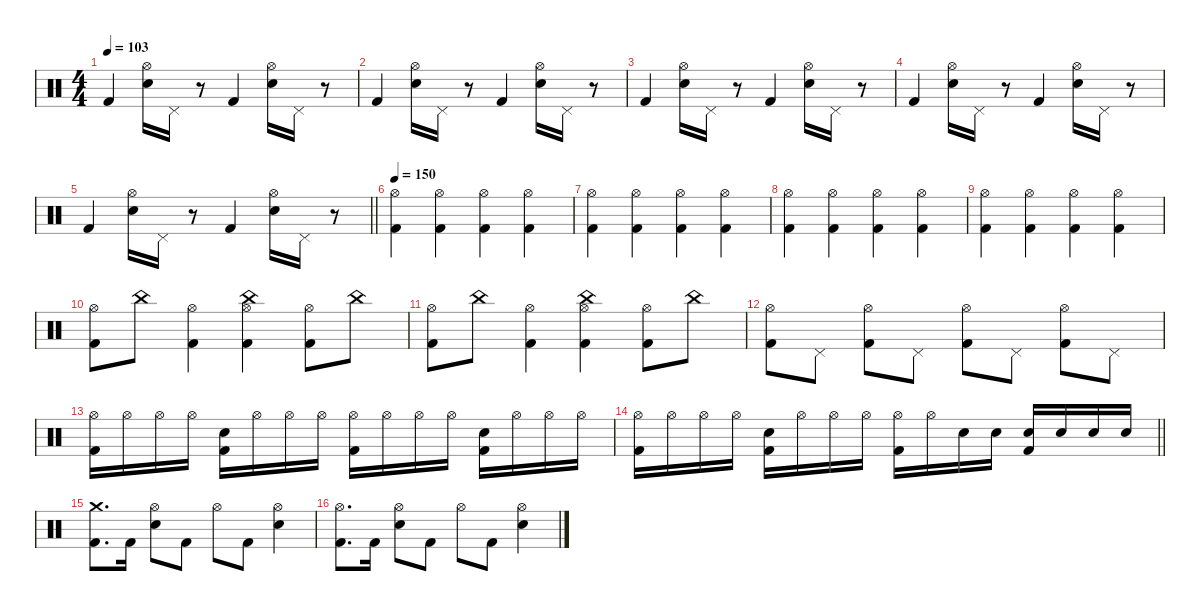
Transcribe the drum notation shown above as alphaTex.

\defaultSystemsLayout 4
\hideDynamics
\bracketExtendMode nobrackets
\singleTrackTrackNamePolicy hidden
\multiTrackTrackNamePolicy hidden
\firstSystemTrackNameMode fullname
\otherSystemsTrackNameOrientation horizontal
\track ("Percussions" "drm.") {defaultSystemsLayout 4 instrument percussion}
\staff {score}
\articulation defaults
\ts (4 4)
\tempo 103
\clef neutral
\ks c "Kick (hit) 2".4{dy fff beam Up}
("Hi-Hat (open)" "Snare (hit) 2").16{dy f beam Down} "Pedal Hi-Hat (hit)".16{beam Down} r.8{beam Down} "Kick (hit) 2".4{dy fff beam Up} ("Hi-Hat (open)" "Snare (hit) 2").16{dy f beam Down} "Pedal Hi-Hat (hit)".16{beam Down} r.8{beam Down} |
"Kick (hit) 2".4{dy fff beam Up} ("Hi-Hat (open)" "Snare (hit) 2").16{dy f beam Down} "Pedal Hi-Hat (hit)".16{beam Down} r.8{beam Down} "Kick (hit) 2".4{dy fff beam Up} ("Hi-Hat (open)" "Snare (hit) 2").16{dy f beam Down} "Pedal Hi-Hat (hit)".16{beam Down} r.8{beam Down} |
"Kick (hit) 2".4{dy fff beam Up} ("Hi-Hat (open)" "Snare (hit) 2").16{dy f beam Down} "Pedal Hi-Hat (hit)".16{beam Down} r.8{beam Down} "Kick (hit) 2".4{dy fff beam Up} ("Hi-Hat (open)" "Snare (hit) 2").16{dy f beam Down} "Pedal Hi-Hat (hit)".16{beam Down} r.8{beam Down} |
"Kick (hit) 2".4{dy fff beam Up} ("Hi-Hat (open)" "Snare (hit) 2").16{dy f beam Down} "Pedal Hi-Hat (hit)".16{beam Down} r.8{beam Down} "Kick (hit) 2".4{dy fff beam Up} ("Hi-Hat (open)" "Snare (hit) 2").16{dy f beam Down} "Pedal Hi-Hat (hit)".16{beam Down} r.8{beam Down} |
\barLineRight lightlight "Kick (hit) 2".4{dy fff beam Up}
("Hi-Hat (open)" "Snare (hit) 2").16{dy f beam Down} "Pedal Hi-Hat (hit)".16{beam Down} r.8{beam Down} "Kick (hit) 2".4{dy fff beam Up} ("Hi-Hat (open)" "Snare (hit) 2").16{dy f beam Down} "Pedal Hi-Hat (hit)".16{beam Down} r.8{beam Down} |
\tempo 150
("Hi-Hat (open)" "Kick (hit) 2").4{beam Down} ("Hi-Hat (open)" "Kick (hit) 2").4{beam Down} ("Hi-Hat (open)" "Kick (hit) 2").4{beam Down} ("Hi-Hat (open)" "Kick (hit) 2").4{beam Down} |
("Hi-Hat (open)" "Kick (hit) 2").4{beam Down} ("Hi-Hat (open)" "Kick (hit) 2").4{beam Down} ("Hi-Hat (open)" "Kick (hit) 2").4{beam Down} ("Hi-Hat (open)" "Kick (hit) 2").4{beam Down} |
("Hi-Hat (open)" "Kick (hit) 2").4{beam Down} ("Hi-Hat (open)" "Kick (hit) 2").4{beam Down} ("Hi-Hat (open)" "Kick (hit) 2").4{beam Down} ("Hi-Hat (open)" "Kick (hit) 2").4{beam Down} |
("Hi-Hat (open)" "Kick (hit) 2").4{beam Down} ("Hi-Hat (open)" "Kick (hit) 2").4{beam Down} ("Hi-Hat (open)" "Kick (hit) 2").4{beam Down} ("Hi-Hat (open)" "Kick (hit) 2").4{beam Down} |
("Hi-Hat (open)" "Kick (hit) 2").8{beam Down} "China (hit)".8{beam Down} ("Hi-Hat (open)" "Kick (hit) 2").4{beam Down} ("Hi-Hat (open)" "China (hit)" "Kick (hit) 2").4{beam Down} ("Hi-Hat (open)" "Kick (hit) 2").8{beam Down} "China (hit)".8{beam Down} |
("Hi-Hat (open)" "Kick (hit) 2").8{beam Down} "China (hit)".8{beam Down} ("Hi-Hat (open)" "Kick (hit) 2").4{beam Down} ("Hi-Hat (open)" "China (hit)" "Kick (hit) 2").4{beam Down} ("Hi-Hat (open)" "Kick (hit) 2").8{beam Down} "China (hit)".8{beam Down} |
("Hi-Hat (open)" "Kick (hit) 2").8{beam Down} "Pedal Hi-Hat (hit)".8{beam Down} ("Hi-Hat (open)" "Kick (hit) 2").8{beam Down} "Pedal Hi-Hat (hit)".8{beam Down} ("Hi-Hat (open)" "Kick (hit) 2").8{beam Down} "Pedal Hi-Hat (hit)".8{beam Down} ("Hi-Hat (open)" "Kick (hit) 2").8{beam Down} "Pedal Hi-Hat (hit)".8{beam Down} |
("Hi-Hat (open)" "Kick (hit) 2").16{beam Down} "Hi-Hat (open)".16{beam Down} "Hi-Hat (open)".16{beam Down} "Hi-Hat (open)".16{beam Down} ("Snare (hit) 2" "Kick (hit) 2").16{dy fff beam Down} "Hi-Hat (open)".16{dy f beam Down} "Hi-Hat (open)".16{beam Down} "Hi-Hat (open)".16{beam Down} ("Hi-Hat (open)" "Kick (hit) 2").16{beam Down} "Hi-Hat (open)".16{beam Down} "Hi-Hat (open)".16{beam Down} "Hi-Hat (open)".16{beam Down} ("Snare (hit) 2" "Kick (hit) 2").16{dy fff beam Down} "Hi-Hat (open)".16{dy f beam Down} "Hi-Hat (open)".16{beam Down} "Hi-Hat (open)".16{beam Down} |
\barLineRight lightlight
("Hi-Hat (open)" "Kick (hit) 2").16{beam Down} "Hi-Hat (open)".16{beam Down} "Hi-Hat (open)".16{beam Down} "Hi-Hat (open)".16{beam Down} ("Snare (hit) 2" "Kick (hit) 2").16{dy fff beam Down} "Hi-Hat (open)".16{dy f beam Down} "Hi-Hat (open)".16{beam Down} "Hi-Hat (open)".16{beam Down} ("Hi-Hat (open)" "Kick (hit) 2").16{beam Down} "Hi-Hat (open)".16{beam Down} "Snare (hit) 2".16{dy fff beam Down} "Snare (hit) 2".16{beam Down} ("Snare (hit) 2" "Kick (hit) 2").16{beam Up} "Snare (hit) 2".16{beam Up} "Snare (hit) 2".16{beam Up} "Snare (hit) 2".16{beam Up} |
("Crash medium (hit)" "Kick (hit) 2").8{d dy ff beam Down} "Kick (hit) 2".16{dy fff beam Down} ("Hi-Hat (open)" "Snare (hit) 2").8{beam Down} "Kick (hit) 2".8{beam Down} "Hi-Hat (open)".8{dy f beam Down} "Kick (hit) 2".8{dy fff beam Down} ("Hi-Hat (open)" "Snare (hit) 2").4{beam Down} |
("Hi-Hat (open)" "Kick (hit) 2").8{d dy ff beam Down} "Kick (hit) 2".16{dy fff beam Down} ("Hi-Hat (open)" "Snare (hit) 2").8{beam Down} "Kick (hit) 2".8{beam Down} "Hi-Hat (open)".8{dy f beam Down} "Kick (hit) 2".8{dy fff beam Down} ("Hi-Hat (open)" "Snare (hit) 2").4{beam Down}
